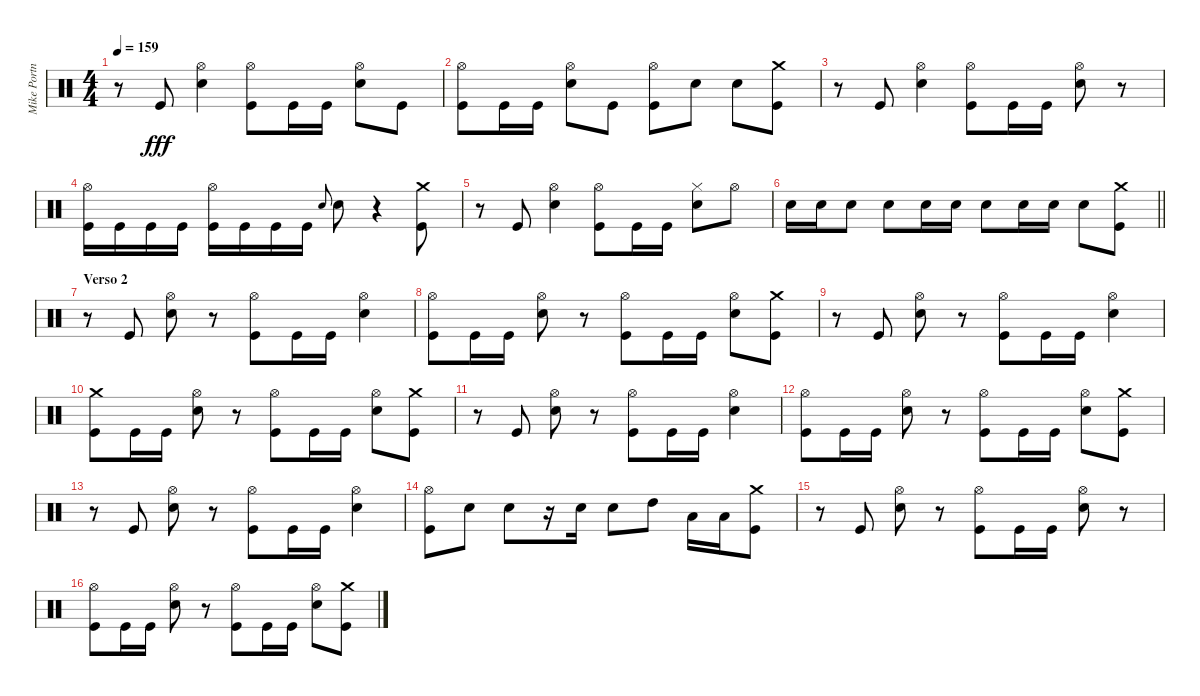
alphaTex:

\track ("Mike Portnoy" "Mike Portn") {instrument percussion}
\staff {score}
\articulation defaults
\ts (4 4)
\tempo 159
\clef neutral
\ks c
r.8{dy fff} "Kick (hit)".8 ("Hi-Hat (open)" "Electric Snare (hit)").4 ("Hi-Hat (open)" "Kick (hit)").8 "Kick (hit)".16 "Kick (hit)".16 ("Hi-Hat (open)" "Electric Snare (hit)").8 "Kick (hit)".8 |
("Hi-Hat (open)" "Kick (hit)").8 "Kick (hit)".16 "Kick (hit)".16 ("Hi-Hat (open)" "Electric Snare (hit)").8 "Kick (hit)".8 ("Hi-Hat (open)" "Kick (hit)").8 "Electric Snare (hit)".8 "Electric Snare (hit)".8 ("Crash medium (hit)" "Kick (hit)").8 |
r.8 "Kick (hit)".8 ("Hi-Hat (open)" "Electric Snare (hit)").4 ("Hi-Hat (open)" "Kick (hit)").8 "Kick (hit)".16 "Kick (hit)".16 ("Hi-Hat (open)" "Electric Snare (hit)").8 r.8 |
("Hi-Hat (open)" "Kick (hit)").16 "Kick (hit)".16 "Kick (hit)".16 "Kick (hit)".16 ("Hi-Hat (open)" "Kick (hit)").16 "Kick (hit)".16 "Kick (hit)".16 "Kick (hit)".16 "Electric Snare (hit)".8{gr onbeat} "Electric Snare (hit)".8 r.4 ("Crash medium (hit)" "Kick (hit)").8 |
r.8 "Kick (hit)".8 ("Hi-Hat (open)" "Electric Snare (hit)").4 ("Hi-Hat (open)" "Kick (hit)").8 "Kick (hit)".16 "Kick (hit)".16 ("Hi-Hat (closed)" "Electric Snare (hit)").8 "Hi-Hat (open)".8 |
\barLineRight lightlight "Electric Snare (hit)".16 "Electric Snare (hit)".16 "Electric Snare (hit)".8 "Electric Snare (hit)".8 "Electric Snare (hit)".16 "Electric Snare (hit)".16 "Electric Snare (hit)".8 "Electric Snare (hit)".16 "Electric Snare (hit)".16 "Electric Snare (hit)".8
("Crash medium (hit)" "Kick (hit)").8 |
\section ("" "Verso 2")
r.8 "Kick (hit)".8 ("Hi-Hat (open)" "Electric Snare (hit)").8 r.8 ("Hi-Hat (open)" "Kick (hit)").8 "Kick (hit)".16 "Kick (hit)".16 ("Hi-Hat (open)" "Electric Snare (hit)").4 |
("Hi-Hat (open)" "Kick (hit)").8 "Kick (hit)".16 "Kick (hit)".16 ("Hi-Hat (open)" "Electric Snare (hit)").8 r.8 ("Hi-Hat (open)" "Kick (hit)").8 "Kick (hit)".16 "Kick (hit)".16 ("Hi-Hat (open)" "Electric Snare (hit)").8 ("Crash medium (hit)" "Kick (hit)").8 |
r.8 "Kick (hit)".8 ("Hi-Hat (open)" "Electric Snare (hit)").8 r.8 ("Hi-Hat (open)" "Kick (hit)").8 "Kick (hit)".16 "Kick (hit)".16 ("Hi-Hat (open)" "Electric Snare (hit)").4 |
("Crash medium (hit)" "Kick (hit)").8 "Kick (hit)".16 "Kick (hit)".16 ("Hi-Hat (open)" "Electric Snare (hit)").8 r.8 ("Hi-Hat (open)" "Kick (hit)").8 "Kick (hit)".16 "Kick (hit)".16 ("Hi-Hat (open)" "Electric Snare (hit)").8 ("Crash medium (hit)" "Kick (hit)").8 |
r.8 "Kick (hit)".8 ("Hi-Hat (open)" "Electric Snare (hit)").8 r.8 ("Hi-Hat (open)" "Kick (hit)").8 "Kick (hit)".16 "Kick (hit)".16 ("Hi-Hat (open)" "Electric Snare (hit)").4 |
("Hi-Hat (open)" "Kick (hit)").8 "Kick (hit)".16 "Kick (hit)".16 ("Hi-Hat (open)" "Electric Snare (hit)").8 r.8 ("Hi-Hat (open)" "Kick (hit)").8 "Kick (hit)".16 "Kick (hit)".16 ("Hi-Hat (open)" "Electric Snare (hit)").8 ("Crash medium (hit)" "Kick (hit)").8 |
r.8 "Kick (hit)".8 ("Hi-Hat (open)" "Electric Snare (hit)").8 r.8 ("Hi-Hat (open)" "Kick (hit)").8 "Kick (hit)".16 "Kick (hit)".16 ("Hi-Hat (open)" "Electric Snare (hit)").4 |
("Hi-Hat (open)" "Kick (hit)").8 "Electric Snare (hit)".8 "Electric Snare (hit)".8 r.16 "Electric Snare (hit)".16 "Electric Snare (hit)".8 "High Tom (hit)".8 "Low Tom (hit)".16 "Low Tom (hit)".16 ("Crash medium (hit)" "Kick (hit)").8 |
r.8 "Kick (hit)".8 ("Hi-Hat (open)" "Electric Snare (hit)").8 r.8 ("Hi-Hat (open)" "Kick (hit)").8 "Kick (hit)".16 "Kick (hit)".16 ("Hi-Hat (open)" "Electric Snare (hit)").8 r.8 |
("Hi-Hat (open)" "Kick (hit)").8 "Kick (hit)".16 "Kick (hit)".16 ("Hi-Hat (open)" "Electric Snare (hit)").8 r.8 ("Hi-Hat (open)" "Kick (hit)").8 "Kick (hit)".16 "Kick (hit)".16 ("Hi-Hat (open)" "Electric Snare (hit)").8 ("Crash medium (hit)" "Kick (hit)").8
